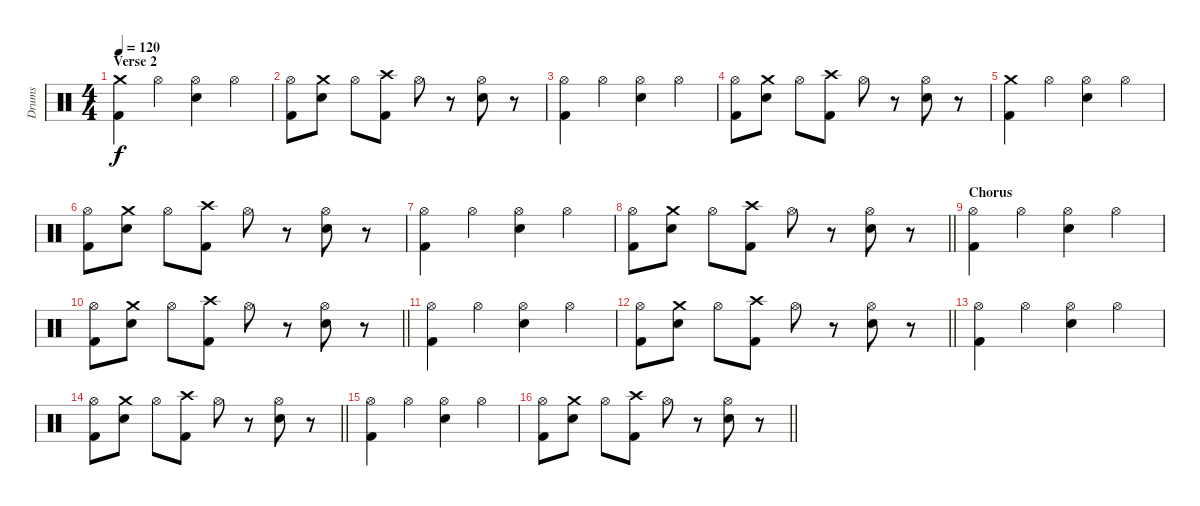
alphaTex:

\track ("Drums" "Drums") {instrument percussion}
\staff {score}
\articulation defaults
\ts (4 4)
\section ("" "Verse 2")
\tempo 120
\clef neutral
\ks c
("Crash medium (hit)" "Kick (hit) 2").4{dy f} "Hi-Hat (open)".4 ("Hi-Hat (open)" "Electric Snare (hit)").4 "Hi-Hat (open)".4 |
("Hi-Hat (open)" "Kick (hit) 2").8 ("Crash medium (hit)" "Electric Snare (hit)").8 "Hi-Hat (open)".8 ("Crash high (hit)" "Kick (hit) 2").8 "Hi-Hat (open)".8 r.8 ("Hi-Hat (open)" "Electric Snare (hit)").8 r.8 |
("Hi-Hat (open)" "Kick (hit) 2").4 "Hi-Hat (open)".4 ("Hi-Hat (open)" "Electric Snare (hit)").4 "Hi-Hat (open)".4 |
("Hi-Hat (open)" "Kick (hit) 2").8 ("Crash medium (hit)" "Electric Snare (hit)").8 "Hi-Hat (open)".8 ("Crash high (hit)" "Kick (hit) 2").8 "Hi-Hat (open)".8 r.8 ("Hi-Hat (open)" "Electric Snare (hit)").8 r.8 |
("Crash medium (hit)" "Kick (hit) 2").4 "Hi-Hat (open)".4 ("Hi-Hat (open)" "Electric Snare (hit)").4 "Hi-Hat (open)".4 |
("Hi-Hat (open)" "Kick (hit) 2").8 ("Crash medium (hit)" "Electric Snare (hit)").8 "Hi-Hat (open)".8 ("Crash high (hit)" "Kick (hit) 2").8 "Hi-Hat (open)".8 r.8 ("Hi-Hat (open)" "Electric Snare (hit)").8 r.8 |
("Hi-Hat (open)" "Kick (hit) 2").4 "Hi-Hat (open)".4 ("Hi-Hat (open)" "Electric Snare (hit)").4 "Hi-Hat (open)".4 |
\barLineRight lightlight
("Hi-Hat (open)" "Kick (hit) 2").8 ("Crash medium (hit)" "Electric Snare (hit)").8 "Hi-Hat (open)".8 ("Crash high (hit)" "Kick (hit) 2").8 "Hi-Hat (open)".8 r.8 ("Hi-Hat (open)" "Electric Snare (hit)").8 r.8 |
\section ("" "Chorus")
("Hi-Hat (open)" "Kick (hit) 2").4 "Hi-Hat (open)".4 ("Hi-Hat (open)" "Electric Snare (hit)").4 "Hi-Hat (open)".4 |
\barLineRight lightlight
("Hi-Hat (open)" "Kick (hit) 2").8 ("Crash medium (hit)" "Electric Snare (hit)").8 "Hi-Hat (open)".8 ("Crash high (hit)" "Kick (hit) 2").8 "Hi-Hat (open)".8 r.8 ("Hi-Hat (open)" "Electric Snare (hit)").8 r.8 |
("Hi-Hat (open)" "Kick (hit) 2").4 "Hi-Hat (open)".4 ("Hi-Hat (open)" "Electric Snare (hit)").4 "Hi-Hat (open)".4 |
\barLineRight lightlight
("Hi-Hat (open)" "Kick (hit) 2").8 ("Crash medium (hit)" "Electric Snare (hit)").8 "Hi-Hat (open)".8 ("Crash high (hit)" "Kick (hit) 2").8 "Hi-Hat (open)".8 r.8 ("Hi-Hat (open)" "Electric Snare (hit)").8 r.8 |
("Hi-Hat (open)" "Kick (hit) 2").4 "Hi-Hat (open)".4 ("Hi-Hat (open)" "Electric Snare (hit)").4 "Hi-Hat (open)".4 |
\barLineRight lightlight
("Hi-Hat (open)" "Kick (hit) 2").8 ("Crash medium (hit)" "Electric Snare (hit)").8 "Hi-Hat (open)".8 ("Crash high (hit)" "Kick (hit) 2").8 "Hi-Hat (open)".8 r.8 ("Hi-Hat (open)" "Electric Snare (hit)").8 r.8 |
("Hi-Hat (open)" "Kick (hit) 2").4 "Hi-Hat (open)".4 ("Hi-Hat (open)" "Electric Snare (hit)").4 "Hi-Hat (open)".4 |
\barLineRight lightlight
("Hi-Hat (open)" "Kick (hit) 2").8 ("Crash medium (hit)" "Electric Snare (hit)").8 "Hi-Hat (open)".8 ("Crash high (hit)" "Kick (hit) 2").8 "Hi-Hat (open)".8 r.8 ("Hi-Hat (open)" "Electric Snare (hit)").8 r.8
